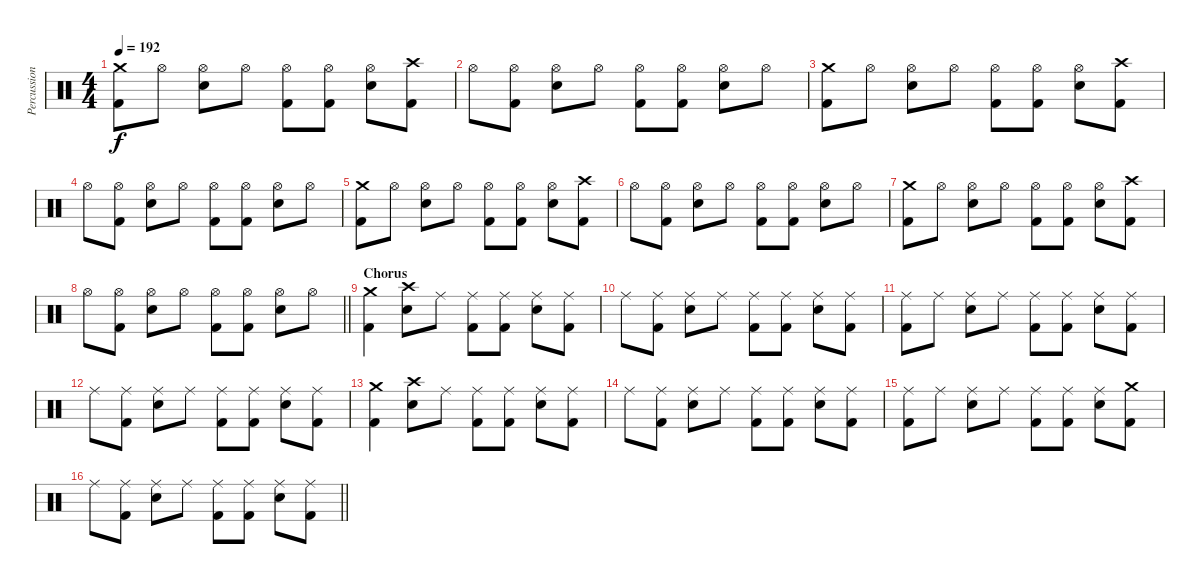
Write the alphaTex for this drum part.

\track ("Percussion" "Percussion") {instrument percussion}
\staff {score}
\articulation defaults
\ts (4 4)
\tempo 192
\clef neutral
\ks c
("Crash medium (hit)" "Kick (hit) 2").8{dy f} "Hi-Hat (open)".8 ("Hi-Hat (open)" "Electric Snare (hit)").8 "Hi-Hat (open)".8 ("Hi-Hat (open)" "Kick (hit) 2").8 ("Hi-Hat (open)" "Kick (hit) 2").8 ("Hi-Hat (open)" "Electric Snare (hit)").8 ("Crash high (hit)" "Kick (hit) 2").8 |
"Hi-Hat (open)".8 ("Hi-Hat (open)" "Kick (hit) 2").8 ("Hi-Hat (open)" "Electric Snare (hit)").8 "Hi-Hat (open)".8 ("Hi-Hat (open)" "Kick (hit) 2").8 ("Hi-Hat (open)" "Kick (hit) 2").8 ("Hi-Hat (open)" "Electric Snare (hit)").8 "Hi-Hat (open)".8 |
("Crash medium (hit)" "Kick (hit) 2").8 "Hi-Hat (open)".8 ("Hi-Hat (open)" "Electric Snare (hit)").8 "Hi-Hat (open)".8 ("Hi-Hat (open)" "Kick (hit) 2").8 ("Hi-Hat (open)" "Kick (hit) 2").8 ("Hi-Hat (open)" "Electric Snare (hit)").8 ("Crash high (hit)" "Kick (hit) 2").8 |
"Hi-Hat (open)".8 ("Hi-Hat (open)" "Kick (hit) 2").8 ("Hi-Hat (open)" "Electric Snare (hit)").8 "Hi-Hat (open)".8 ("Hi-Hat (open)" "Kick (hit) 2").8 ("Hi-Hat (open)" "Kick (hit) 2").8 ("Hi-Hat (open)" "Electric Snare (hit)").8 "Hi-Hat (open)".8 |
("Crash medium (hit)" "Kick (hit) 2").8 "Hi-Hat (open)".8 ("Hi-Hat (open)" "Electric Snare (hit)").8 "Hi-Hat (open)".8 ("Hi-Hat (open)" "Kick (hit) 2").8 ("Hi-Hat (open)" "Kick (hit) 2").8 ("Hi-Hat (open)" "Electric Snare (hit)").8 ("Crash high (hit)" "Kick (hit) 2").8 |
"Hi-Hat (open)".8 ("Hi-Hat (open)" "Kick (hit) 2").8 ("Hi-Hat (open)" "Electric Snare (hit)").8 "Hi-Hat (open)".8 ("Hi-Hat (open)" "Kick (hit) 2").8 ("Hi-Hat (open)" "Kick (hit) 2").8 ("Hi-Hat (open)" "Electric Snare (hit)").8 "Hi-Hat (open)".8 |
("Crash medium (hit)" "Kick (hit) 2").8 "Hi-Hat (open)".8 ("Hi-Hat (open)" "Electric Snare (hit)").8 "Hi-Hat (open)".8 ("Hi-Hat (open)" "Kick (hit) 2").8 ("Hi-Hat (open)" "Kick (hit) 2").8 ("Hi-Hat (open)" "Electric Snare (hit)").8 ("Crash high (hit)" "Kick (hit) 2").8 |
\barLineRight lightlight "Hi-Hat (open)".8
("Hi-Hat (open)" "Kick (hit) 2").8 ("Hi-Hat (open)" "Electric Snare (hit)").8 "Hi-Hat (open)".8 ("Hi-Hat (open)" "Kick (hit) 2").8 ("Hi-Hat (open)" "Kick (hit) 2").8 ("Hi-Hat (open)" "Electric Snare (hit)").8 "Hi-Hat (open)".8 |
\section ("" "Chorus")
("Crash medium (hit)" "Kick (hit) 2").4 ("Crash high (hit)" "Electric Snare (hit)").8 "Ride (middle)".8 ("Ride (middle)" "Kick (hit) 2").8 ("Ride (middle)" "Kick (hit) 2").8 ("Ride (middle)" "Electric Snare (hit)").8 ("Ride (middle)" "Kick (hit) 2").8 |
"Ride (middle)".8 ("Ride (middle)" "Kick (hit) 2").8 ("Ride (middle)" "Electric Snare (hit)").8 "Ride (middle)".8 ("Ride (middle)" "Kick (hit) 2").8 ("Ride (middle)" "Kick (hit) 2").8 ("Ride (middle)" "Electric Snare (hit)").8 ("Ride (middle)" "Kick (hit) 2").8 |
("Ride (middle)" "Kick (hit) 2").8 "Ride (middle)".8 ("Ride (middle)" "Electric Snare (hit)").8 "Ride (middle)".8 ("Ride (middle)" "Kick (hit) 2").8 ("Ride (middle)" "Kick (hit) 2").8 ("Ride (middle)" "Electric Snare (hit)").8 ("Ride (middle)" "Kick (hit) 2").8 |
"Ride (middle)".8 ("Ride (middle)" "Kick (hit) 2").8 ("Ride (middle)" "Electric Snare (hit)").8 "Ride (middle)".8 ("Ride (middle)" "Kick (hit) 2").8 ("Ride (middle)" "Kick (hit) 2").8 ("Ride (middle)" "Electric Snare (hit)").8 ("Ride (middle)" "Kick (hit) 2").8 |
("Crash medium (hit)" "Kick (hit) 2").4 ("Crash high (hit)" "Electric Snare (hit)").8 "Ride (middle)".8 ("Ride (middle)" "Kick (hit) 2").8 ("Ride (middle)" "Kick (hit) 2").8 ("Ride (middle)" "Electric Snare (hit)").8 ("Ride (middle)" "Kick (hit) 2").8 |
"Ride (middle)".8 ("Ride (middle)" "Kick (hit) 2").8 ("Ride (middle)" "Electric Snare (hit)").8 "Ride (middle)".8 ("Ride (middle)" "Kick (hit) 2").8 ("Ride (middle)" "Kick (hit) 2").8 ("Ride (middle)" "Electric Snare (hit)").8 ("Ride (middle)" "Kick (hit) 2").8 |
("Ride (middle)" "Kick (hit) 2").8 "Ride (middle)".8 ("Ride (middle)" "Electric Snare (hit)").8 "Ride (middle)".8 ("Ride (middle)" "Kick (hit) 2").8 ("Ride (middle)" "Kick (hit) 2").8 ("Ride (middle)" "Electric Snare (hit)").8 ("Crash medium (hit)" "Kick (hit) 2").8 |
\barLineRight lightlight "Ride (middle)".8
("Ride (middle)" "Kick (hit) 2").8 ("Ride (middle)" "Electric Snare (hit)").8 "Ride (middle)".8 ("Ride (middle)" "Kick (hit) 2").8 ("Ride (middle)" "Kick (hit) 2").8 ("Ride (middle)" "Electric Snare (hit)").8 ("Ride (middle)" "Kick (hit) 2").8
